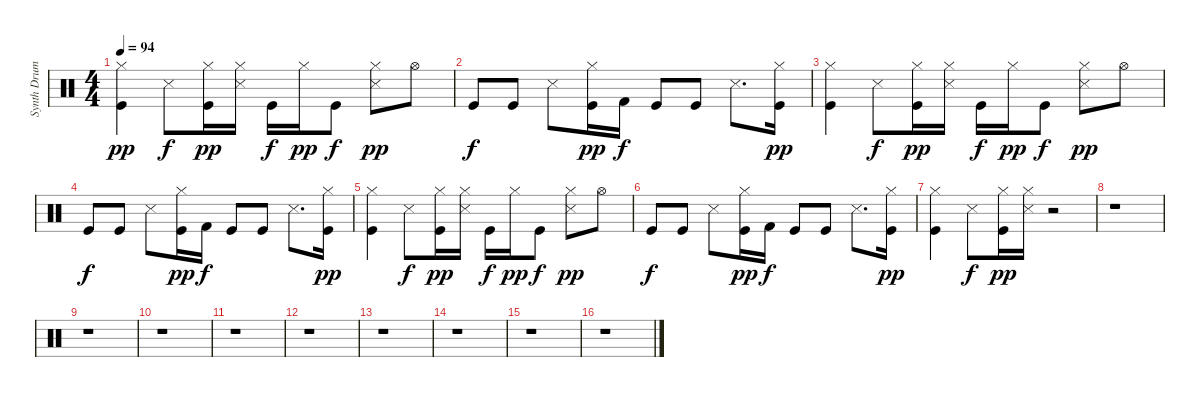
\track ("Synth Drums" "Synth Drum") {instrument percussion}
\staff {score}
\articulation defaults
\ts (4 4)
\tempo 94
\clef neutral
\ks c
("Hi-Hat (closed)" "Kick (hit)").4{dy pp} "Snare (side stick) 3".8{dy f} ("Hi-Hat (closed)" "Kick (hit)").16{dy pp} ("Hi-Hat (closed)" "Snare (side stick) 3").16 "Kick (hit)".16{dy f} "Hi-Hat (closed)".16{dy pp} "Kick (hit)".8{dy f} ("Hi-Hat (closed)" "Snare (side stick) 3").8{dy pp} "Hi-Hat (open)".8 |
"Kick (hit)".8{dy f} "Kick (hit)".8 "Snare (side stick) 3".8 ("Hi-Hat (closed)" "Kick (hit)").16{dy pp} "Kick (hit) 2".16{dy f} "Kick (hit)".8 "Kick (hit)".8 "Snare (side stick) 3".8{d} ("Hi-Hat (closed)" "Kick (hit)").16{dy pp} |
("Hi-Hat (closed)" "Kick (hit)").4 "Snare (side stick) 3".8{dy f} ("Hi-Hat (closed)" "Kick (hit)").16{dy pp} ("Hi-Hat (closed)" "Snare (side stick) 3").16 "Kick (hit)".16{dy f} "Hi-Hat (closed)".16{dy pp} "Kick (hit)".8{dy f} ("Hi-Hat (closed)" "Snare (side stick) 3").8{dy pp} "Hi-Hat (open)".8 |
"Kick (hit)".8{dy f} "Kick (hit)".8 "Snare (side stick) 3".8 ("Hi-Hat (closed)" "Kick (hit)").16{dy pp} "Kick (hit) 2".16{dy f} "Kick (hit)".8 "Kick (hit)".8 "Snare (side stick) 3".8{d} ("Hi-Hat (closed)" "Kick (hit)").16{dy pp} |
("Hi-Hat (closed)" "Kick (hit)").4 "Snare (side stick) 3".8{dy f} ("Hi-Hat (closed)" "Kick (hit)").16{dy pp} ("Hi-Hat (closed)" "Snare (side stick) 3").16 "Kick (hit)".16{dy f} "Hi-Hat (closed)".16{dy pp} "Kick (hit)".8{dy f} ("Hi-Hat (closed)" "Snare (side stick) 3").8{dy pp} "Hi-Hat (open)".8 |
"Kick (hit)".8{dy f} "Kick (hit)".8 "Snare (side stick) 3".8 ("Hi-Hat (closed)" "Kick (hit)").16{dy pp} "Kick (hit) 2".16{dy f} "Kick (hit)".8 "Kick (hit)".8 "Snare (side stick) 3".8{d} ("Hi-Hat (closed)" "Kick (hit)").16{dy pp} |
("Hi-Hat (closed)" "Kick (hit)").4 "Snare (side stick) 3".8{dy f} ("Hi-Hat (closed)" "Kick (hit)").16{dy pp} ("Hi-Hat (closed)" "Snare (side stick) 3").16 r.2 |
r.1 |
r.1 |
r.1 |
r.1 |
r.1 |
r.1 |
r.1 |
r.1 |
r.1
